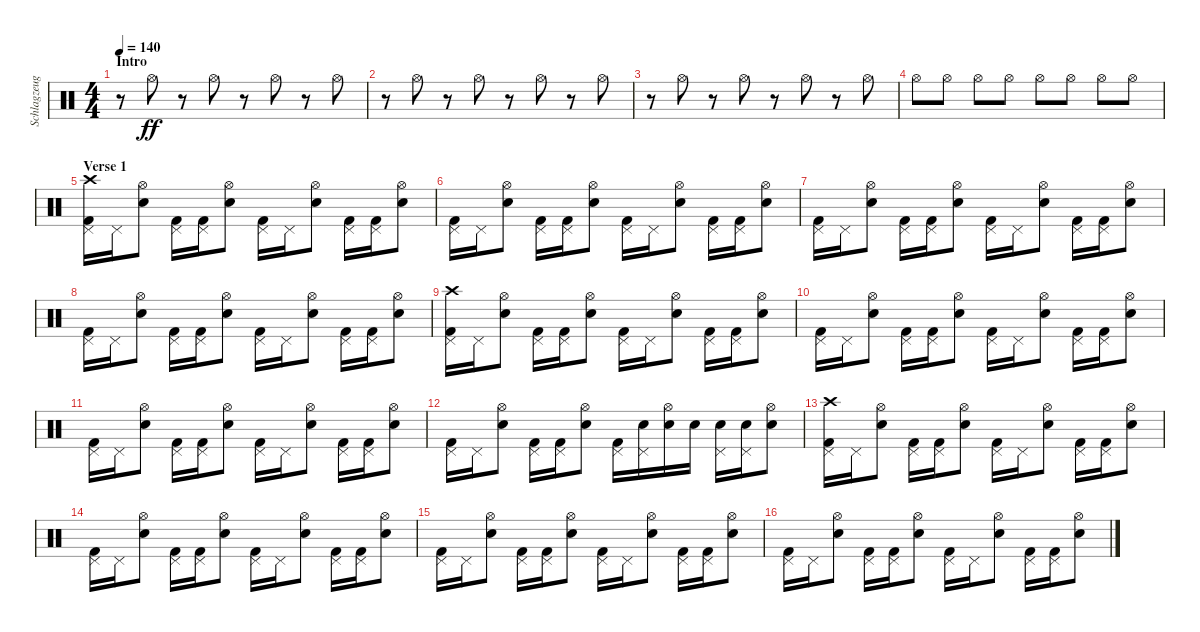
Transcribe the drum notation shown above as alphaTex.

\track ("Schlagzeug - Bela B." "Schlagzeug") {instrument percussion}
\staff {score}
\articulation defaults
\ts (4 4)
\section ("" "Intro")
\tempo 140
\clef neutral
\ks c
r.8{dy ff} "Hi-Hat (open)".8 r.8 "Hi-Hat (open)".8 r.8 "Hi-Hat (open)".8 r.8 "Hi-Hat (open)".8 |
r.8 "Hi-Hat (open)".8 r.8 "Hi-Hat (open)".8 r.8 "Hi-Hat (open)".8 r.8 "Hi-Hat (open)".8 |
r.8 "Hi-Hat (open)".8 r.8 "Hi-Hat (open)".8 r.8 "Hi-Hat (open)".8 r.8 "Hi-Hat (open)".8 |
"Hi-Hat (open)".8 "Hi-Hat (open)".8 "Hi-Hat (open)".8 "Hi-Hat (open)".8 "Hi-Hat (open)".8 "Hi-Hat (open)".8 "Hi-Hat (open)".8 "Hi-Hat (open)".8 |
\section ("" "Verse 1")
("Kick (hit) 2" "Pedal Hi-Hat (hit)" "Crash high (hit)").16 "Pedal Hi-Hat (hit)".16 ("Electric Snare (hit)" "Hi-Hat (open)").8 ("Kick (hit) 2" "Pedal Hi-Hat (hit)").16 ("Kick (hit) 2" "Pedal Hi-Hat (hit)").16 ("Electric Snare (hit)" "Hi-Hat (open)").8 ("Kick (hit) 2" "Pedal Hi-Hat (hit)").16 "Pedal Hi-Hat (hit)".16 ("Electric Snare (hit)" "Hi-Hat (open)").8 ("Kick (hit) 2" "Pedal Hi-Hat (hit)").16 ("Kick (hit) 2" "Pedal Hi-Hat (hit)").16 ("Electric Snare (hit)" "Hi-Hat (open)").8 |
("Kick (hit) 2" "Pedal Hi-Hat (hit)").16 "Pedal Hi-Hat (hit)".16 ("Electric Snare (hit)" "Hi-Hat (open)").8 ("Kick (hit) 2" "Pedal Hi-Hat (hit)").16 ("Kick (hit) 2" "Pedal Hi-Hat (hit)").16 ("Electric Snare (hit)" "Hi-Hat (open)").8 ("Kick (hit) 2" "Pedal Hi-Hat (hit)").16 "Pedal Hi-Hat (hit)".16 ("Electric Snare (hit)" "Hi-Hat (open)").8 ("Kick (hit) 2" "Pedal Hi-Hat (hit)").16 ("Kick (hit) 2" "Pedal Hi-Hat (hit)").16 ("Electric Snare (hit)" "Hi-Hat (open)").8 |
("Kick (hit) 2" "Pedal Hi-Hat (hit)").16 "Pedal Hi-Hat (hit)".16 ("Electric Snare (hit)" "Hi-Hat (open)").8 ("Kick (hit) 2" "Pedal Hi-Hat (hit)").16 ("Kick (hit) 2" "Pedal Hi-Hat (hit)").16 ("Electric Snare (hit)" "Hi-Hat (open)").8 ("Kick (hit) 2" "Pedal Hi-Hat (hit)").16 "Pedal Hi-Hat (hit)".16 ("Electric Snare (hit)" "Hi-Hat (open)").8 ("Kick (hit) 2" "Pedal Hi-Hat (hit)").16 ("Kick (hit) 2" "Pedal Hi-Hat (hit)").16 ("Electric Snare (hit)" "Hi-Hat (open)").8 |
("Kick (hit) 2" "Pedal Hi-Hat (hit)").16 "Pedal Hi-Hat (hit)".16 ("Electric Snare (hit)" "Hi-Hat (open)").8 ("Kick (hit) 2" "Pedal Hi-Hat (hit)").16 ("Kick (hit) 2" "Pedal Hi-Hat (hit)").16 ("Electric Snare (hit)" "Hi-Hat (open)").8 ("Kick (hit) 2" "Pedal Hi-Hat (hit)").16 "Pedal Hi-Hat (hit)".16 ("Electric Snare (hit)" "Hi-Hat (open)").8 ("Kick (hit) 2" "Pedal Hi-Hat (hit)").16 ("Kick (hit) 2" "Pedal Hi-Hat (hit)").16 ("Electric Snare (hit)" "Hi-Hat (open)").8 |
("Kick (hit) 2" "Pedal Hi-Hat (hit)" "Crash high (hit)").16 "Pedal Hi-Hat (hit)".16 ("Electric Snare (hit)" "Hi-Hat (open)").8 ("Kick (hit) 2" "Pedal Hi-Hat (hit)").16 ("Kick (hit) 2" "Pedal Hi-Hat (hit)").16 ("Electric Snare (hit)" "Hi-Hat (open)").8 ("Kick (hit) 2" "Pedal Hi-Hat (hit)").16 "Pedal Hi-Hat (hit)".16 ("Electric Snare (hit)" "Hi-Hat (open)").8 ("Kick (hit) 2" "Pedal Hi-Hat (hit)").16 ("Kick (hit) 2" "Pedal Hi-Hat (hit)").16 ("Electric Snare (hit)" "Hi-Hat (open)").8 |
("Kick (hit) 2" "Pedal Hi-Hat (hit)").16 "Pedal Hi-Hat (hit)".16 ("Electric Snare (hit)" "Hi-Hat (open)").8 ("Kick (hit) 2" "Pedal Hi-Hat (hit)").16 ("Kick (hit) 2" "Pedal Hi-Hat (hit)").16 ("Electric Snare (hit)" "Hi-Hat (open)").8 ("Kick (hit) 2" "Pedal Hi-Hat (hit)").16 "Pedal Hi-Hat (hit)".16 ("Electric Snare (hit)" "Hi-Hat (open)").8 ("Kick (hit) 2" "Pedal Hi-Hat (hit)").16 ("Kick (hit) 2" "Pedal Hi-Hat (hit)").16 ("Electric Snare (hit)" "Hi-Hat (open)").8 |
("Kick (hit) 2" "Pedal Hi-Hat (hit)").16 "Pedal Hi-Hat (hit)".16 ("Electric Snare (hit)" "Hi-Hat (open)").8 ("Kick (hit) 2" "Pedal Hi-Hat (hit)").16 ("Kick (hit) 2" "Pedal Hi-Hat (hit)").16 ("Electric Snare (hit)" "Hi-Hat (open)").8 ("Kick (hit) 2" "Pedal Hi-Hat (hit)").16 "Pedal Hi-Hat (hit)".16 ("Electric Snare (hit)" "Hi-Hat (open)").8 ("Kick (hit) 2" "Pedal Hi-Hat (hit)").16 ("Kick (hit) 2" "Pedal Hi-Hat (hit)").16 ("Electric Snare (hit)" "Hi-Hat (open)").8 |
("Kick (hit) 2" "Pedal Hi-Hat (hit)").16 "Pedal Hi-Hat (hit)".16 ("Electric Snare (hit)" "Hi-Hat (open)").8 ("Kick (hit) 2" "Pedal Hi-Hat (hit)").16 ("Kick (hit) 2" "Pedal Hi-Hat (hit)").16 ("Electric Snare (hit)" "Hi-Hat (open)").8 ("Pedal Hi-Hat (hit)" "Kick (hit) 2").16 ("Pedal Hi-Hat (hit)" "Electric Snare (hit)").16 ("Electric Snare (hit)" "Hi-Hat (open)").16 "Electric Snare (hit)".16 ("Pedal Hi-Hat (hit)" "Electric Snare (hit)").16 ("Pedal Hi-Hat (hit)" "Electric Snare (hit)").16 ("Electric Snare (hit)" "Hi-Hat (open)").8 |
("Kick (hit) 2" "Pedal Hi-Hat (hit)" "Crash high (hit)").16 "Pedal Hi-Hat (hit)".16 ("Electric Snare (hit)" "Hi-Hat (open)").8 ("Kick (hit) 2" "Pedal Hi-Hat (hit)").16 ("Kick (hit) 2" "Pedal Hi-Hat (hit)").16 ("Electric Snare (hit)" "Hi-Hat (open)").8 ("Kick (hit) 2" "Pedal Hi-Hat (hit)").16 "Pedal Hi-Hat (hit)".16 ("Electric Snare (hit)" "Hi-Hat (open)").8 ("Kick (hit) 2" "Pedal Hi-Hat (hit)").16 ("Kick (hit) 2" "Pedal Hi-Hat (hit)").16 ("Electric Snare (hit)" "Hi-Hat (open)").8 |
("Kick (hit) 2" "Pedal Hi-Hat (hit)").16 "Pedal Hi-Hat (hit)".16 ("Electric Snare (hit)" "Hi-Hat (open)").8 ("Kick (hit) 2" "Pedal Hi-Hat (hit)").16 ("Kick (hit) 2" "Pedal Hi-Hat (hit)").16 ("Electric Snare (hit)" "Hi-Hat (open)").8 ("Kick (hit) 2" "Pedal Hi-Hat (hit)").16 "Pedal Hi-Hat (hit)".16 ("Electric Snare (hit)" "Hi-Hat (open)").8 ("Kick (hit) 2" "Pedal Hi-Hat (hit)").16 ("Kick (hit) 2" "Pedal Hi-Hat (hit)").16 ("Electric Snare (hit)" "Hi-Hat (open)").8 |
("Kick (hit) 2" "Pedal Hi-Hat (hit)").16 "Pedal Hi-Hat (hit)".16 ("Electric Snare (hit)" "Hi-Hat (open)").8 ("Kick (hit) 2" "Pedal Hi-Hat (hit)").16 ("Kick (hit) 2" "Pedal Hi-Hat (hit)").16 ("Electric Snare (hit)" "Hi-Hat (open)").8 ("Kick (hit) 2" "Pedal Hi-Hat (hit)").16 "Pedal Hi-Hat (hit)".16 ("Electric Snare (hit)" "Hi-Hat (open)").8 ("Kick (hit) 2" "Pedal Hi-Hat (hit)").16 ("Kick (hit) 2" "Pedal Hi-Hat (hit)").16 ("Electric Snare (hit)" "Hi-Hat (open)").8 |
("Kick (hit) 2" "Pedal Hi-Hat (hit)").16 "Pedal Hi-Hat (hit)".16 ("Electric Snare (hit)" "Hi-Hat (open)").8 ("Kick (hit) 2" "Pedal Hi-Hat (hit)").16 ("Kick (hit) 2" "Pedal Hi-Hat (hit)").16 ("Electric Snare (hit)" "Hi-Hat (open)").8 ("Kick (hit) 2" "Pedal Hi-Hat (hit)").16 "Pedal Hi-Hat (hit)".16 ("Electric Snare (hit)" "Hi-Hat (open)").8 ("Kick (hit) 2" "Pedal Hi-Hat (hit)").16 ("Kick (hit) 2" "Pedal Hi-Hat (hit)").16 ("Electric Snare (hit)" "Hi-Hat (open)").8
